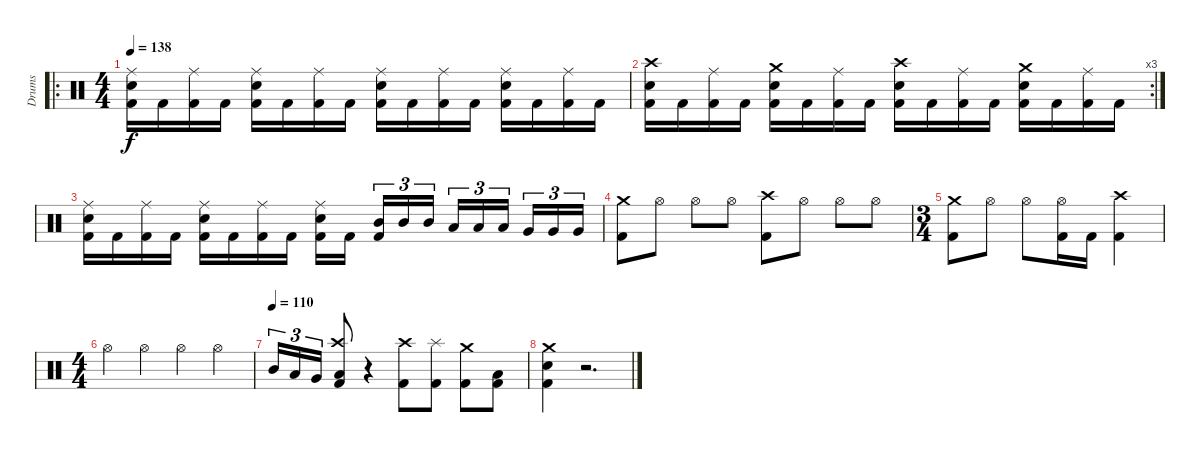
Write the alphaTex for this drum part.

\track ("Drums" "Drums") {instrument percussion}
\staff {score}
\articulation defaults
\ro
\ts (4 4)
\tempo 138
\clef neutral
\ks c
("Ride (middle)" "Electric Snare (hit)" "Kick (hit) 2").16{dy f} "Kick (hit) 2".16 ("Ride (middle)" "Kick (hit) 2").16 "Kick (hit) 2".16 ("Ride (middle)" "Electric Snare (hit)" "Kick (hit) 2").16 "Kick (hit) 2".16 ("Ride (middle)" "Kick (hit) 2").16 "Kick (hit) 2".16 ("Ride (middle)" "Electric Snare (hit)" "Kick (hit) 2").16 "Kick (hit) 2".16 ("Ride (middle)" "Kick (hit) 2").16 "Kick (hit) 2".16 ("Ride (middle)" "Electric Snare (hit)" "Kick (hit) 2").16 "Kick (hit) 2".16 ("Ride (middle)" "Kick (hit) 2").16 "Kick (hit) 2".16 |
\rc 3
("Crash high (hit)" "Electric Snare (hit)" "Kick (hit) 2").16 "Kick (hit) 2".16 ("Ride (middle)" "Kick (hit) 2").16 "Kick (hit) 2".16 ("Crash medium (hit)" "Electric Snare (hit)" "Kick (hit) 2").16 "Kick (hit) 2".16 ("Ride (middle)" "Kick (hit) 2").16 "Kick (hit) 2".16 ("Crash high (hit)" "Electric Snare (hit)" "Kick (hit) 2").16 "Kick (hit) 2".16 ("Ride (middle)" "Kick (hit) 2").16 "Kick (hit) 2".16 ("Crash medium (hit)" "Electric Snare (hit)" "Kick (hit) 2").16 "Kick (hit) 2".16 ("Ride (middle)" "Kick (hit) 2").16 "Kick (hit) 2".16 |
("Ride (middle)" "Electric Snare (hit)" "Kick (hit) 2").16 "Kick (hit) 2".16 ("Ride (middle)" "Kick (hit) 2").16 "Kick (hit) 2".16 ("Ride (middle)" "Electric Snare (hit)" "Kick (hit) 2").16 "Kick (hit) 2".16 ("Ride (middle)" "Kick (hit) 2").16 "Kick (hit) 2".16 ("Ride (middle)" "Electric Snare (hit)" "Kick (hit) 2").16 "Kick (hit) 2".16{beam splitsecondary} ("Mid Tom (hit)" "Kick (hit) 2").16{tu (3 2)} "Mid Tom (hit)".16{tu (3 2)} "Mid Tom (hit)".16{tu (3 2)} "Low Tom (hit)".16{tu (3 2)} "Low Tom (hit)".16{tu (3 2)} "Low Tom (hit)".16{tu (3 2) beam splitsecondary} "Very Low Tom (hit)".16{tu (3 2)} "Very Low Tom (hit)".16{tu (3 2)} "Very Low Tom (hit)".16{tu (3 2)} |
("Crash medium (hit)" "Kick (hit) 2").8 "Hi-Hat (open)".8 "Hi-Hat (open)".8 "Hi-Hat (open)".8 ("Crash high (hit)" "Kick (hit) 2").8 "Hi-Hat (open)".8 "Hi-Hat (open)".8 "Hi-Hat (open)".8 |
\ts (3 4)
("Crash medium (hit)" "Kick (hit) 2").8 "Hi-Hat (open)".8 "Hi-Hat (open)".8 ("Hi-Hat (open)" "Kick (hit) 2").16 "Kick (hit) 2".16 ("Crash high (hit)" "Kick (hit) 2").4 |
\ts (4 4)
"Hi-Hat (open)".4 "Hi-Hat (open)".4 "Hi-Hat (open)".4 "Hi-Hat (open)".4 |
\tempo (110)
"Mid Tom (hit)".16{tu (3 2)} "Low Tom (hit)".16{tu (3 2)} "Very Low Tom (hit)".16{tu (3 2)} ("Crash high (hit)" "Low Floor Tom (hit)" "Kick (hit) 2").8 r.4 ("Crash high (hit)" "Kick (hit) 2").8 ("Splash (hit)" "Kick (hit) 2").8 ("Crash medium (hit)" "Kick (hit) 2").8 ("Low Floor Tom (hit)" "Kick (hit) 2").8 |
("Crash medium (hit)" "Electric Snare (hit)" "Kick (hit) 2").4 r.2{d}
